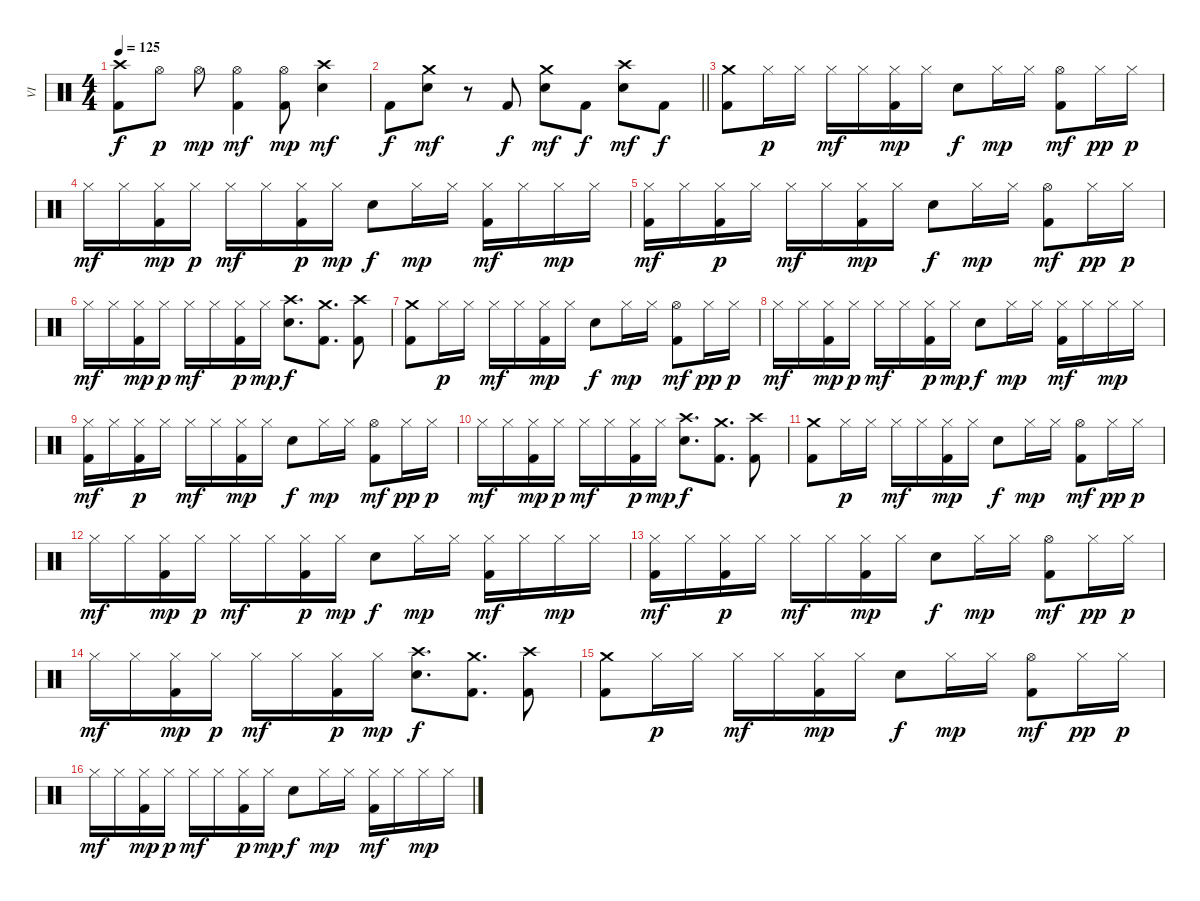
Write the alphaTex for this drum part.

\track ("VI" "VI") {instrument percussion}
\staff {score}
\articulation defaults
\ts (4 4)
\tempo 125
\clef neutral
\ks c
("Crash high (hit)" "Kick (hit) 2").8{dy f} "Hi-Hat (open)".8{dy p} "Hi-Hat (open)".8{dy mp} ("Hi-Hat (open)" "Kick (hit) 2").4{dy mf} ("Hi-Hat (open)" "Kick (hit) 2").8{dy mp} ("Crash high (hit)" "Electric Snare (hit)").4{dy mf} |
\barLineRight lightlight "Kick (hit) 2".8{dy f}
("Crash medium (hit)" "Electric Snare (hit)").8{dy mf} r.8 "Kick (hit) 2".8{dy f} ("Crash medium (hit)" "Electric Snare (hit)").8{dy mf} "Kick (hit) 2".8{dy f} ("Crash high (hit)" "Electric Snare (hit)").8{dy mf} "Kick (hit) 2".8{dy f} |
\section ("" "")
("Crash medium (hit)" "Kick (hit) 2").8 "Hi-Hat (closed)".16{dy p} "Hi-Hat (closed)".16 "Hi-Hat (closed)".16{dy mf} "Hi-Hat (closed)".16 ("Hi-Hat (closed)" "Kick (hit) 2").16{dy mp} "Hi-Hat (closed)".16 "Electric Snare (hit)".8{dy f} "Hi-Hat (closed)".16{dy mp} "Hi-Hat (closed)".16 ("Hi-Hat (open)" "Kick (hit) 2").8{dy mf} "Hi-Hat (closed)".16{dy pp} "Hi-Hat (closed)".16{dy p} |
"Hi-Hat (closed)".16{dy mf} "Hi-Hat (closed)".16 ("Hi-Hat (closed)" "Kick (hit) 2").16{dy mp} "Hi-Hat (closed)".16{dy p} "Hi-Hat (closed)".16{dy mf} "Hi-Hat (closed)".16 ("Hi-Hat (closed)" "Kick (hit) 2").16{dy p} "Hi-Hat (closed)".16{dy mp} "Electric Snare (hit)".8{dy f} "Hi-Hat (closed)".16{dy mp} "Hi-Hat (closed)".16 ("Hi-Hat (closed)" "Kick (hit) 2").16{dy mf} "Hi-Hat (closed)".16 "Hi-Hat (closed)".16{dy mp} "Hi-Hat (closed)".16 |
("Hi-Hat (closed)" "Kick (hit) 2").16{dy mf} "Hi-Hat (closed)".16 ("Hi-Hat (closed)" "Kick (hit) 2").16{dy p} "Hi-Hat (closed)".16 "Hi-Hat (closed)".16{dy mf} "Hi-Hat (closed)".16 ("Hi-Hat (closed)" "Kick (hit) 2").16{dy mp} "Hi-Hat (closed)".16 "Electric Snare (hit)".8{dy f} "Hi-Hat (closed)".16{dy mp} "Hi-Hat (closed)".16 ("Hi-Hat (open)" "Kick (hit) 2").8{dy mf} "Hi-Hat (closed)".16{dy pp} "Hi-Hat (closed)".16{dy p} |
"Hi-Hat (closed)".16{dy mf} "Hi-Hat (closed)".16 ("Hi-Hat (closed)" "Kick (hit) 2").16{dy mp} "Hi-Hat (closed)".16{dy p} "Hi-Hat (closed)".16{dy mf} "Hi-Hat (closed)".16 ("Hi-Hat (closed)" "Kick (hit) 2").16{dy p} "Hi-Hat (closed)".16{dy mp} ("Crash high (hit)" "Electric Snare (hit)").8{d dy f} ("Crash medium (hit)" "Kick (hit) 2").8{d} ("Crash high (hit)" "Kick (hit) 2").8 |
("Crash medium (hit)" "Kick (hit) 2").8 "Hi-Hat (closed)".16{dy p} "Hi-Hat (closed)".16 "Hi-Hat (closed)".16{dy mf} "Hi-Hat (closed)".16 ("Hi-Hat (closed)" "Kick (hit) 2").16{dy mp} "Hi-Hat (closed)".16 "Electric Snare (hit)".8{dy f} "Hi-Hat (closed)".16{dy mp} "Hi-Hat (closed)".16 ("Hi-Hat (open)" "Kick (hit) 2").8{dy mf} "Hi-Hat (closed)".16{dy pp} "Hi-Hat (closed)".16{dy p} |
"Hi-Hat (closed)".16{dy mf} "Hi-Hat (closed)".16 ("Hi-Hat (closed)" "Kick (hit) 2").16{dy mp} "Hi-Hat (closed)".16{dy p} "Hi-Hat (closed)".16{dy mf} "Hi-Hat (closed)".16 ("Hi-Hat (closed)" "Kick (hit) 2").16{dy p} "Hi-Hat (closed)".16{dy mp} "Electric Snare (hit)".8{dy f} "Hi-Hat (closed)".16{dy mp} "Hi-Hat (closed)".16 ("Hi-Hat (closed)" "Kick (hit) 2").16{dy mf} "Hi-Hat (closed)".16 "Hi-Hat (closed)".16{dy mp} "Hi-Hat (closed)".16 |
("Hi-Hat (closed)" "Kick (hit) 2").16{dy mf} "Hi-Hat (closed)".16 ("Hi-Hat (closed)" "Kick (hit) 2").16{dy p} "Hi-Hat (closed)".16 "Hi-Hat (closed)".16{dy mf} "Hi-Hat (closed)".16 ("Hi-Hat (closed)" "Kick (hit) 2").16{dy mp} "Hi-Hat (closed)".16 "Electric Snare (hit)".8{dy f} "Hi-Hat (closed)".16{dy mp} "Hi-Hat (closed)".16 ("Hi-Hat (open)" "Kick (hit) 2").8{dy mf} "Hi-Hat (closed)".16{dy pp} "Hi-Hat (closed)".16{dy p} |
"Hi-Hat (closed)".16{dy mf} "Hi-Hat (closed)".16 ("Hi-Hat (closed)" "Kick (hit) 2").16{dy mp} "Hi-Hat (closed)".16{dy p} "Hi-Hat (closed)".16{dy mf} "Hi-Hat (closed)".16 ("Hi-Hat (closed)" "Kick (hit) 2").16{dy p} "Hi-Hat (closed)".16{dy mp} ("Crash high (hit)" "Electric Snare (hit)").8{d dy f} ("Crash medium (hit)" "Kick (hit) 2").8{d} ("Crash high (hit)" "Kick (hit) 2").8 |
("Crash medium (hit)" "Kick (hit) 2").8 "Hi-Hat (closed)".16{dy p} "Hi-Hat (closed)".16 "Hi-Hat (closed)".16{dy mf} "Hi-Hat (closed)".16 ("Hi-Hat (closed)" "Kick (hit) 2").16{dy mp} "Hi-Hat (closed)".16 "Electric Snare (hit)".8{dy f} "Hi-Hat (closed)".16{dy mp} "Hi-Hat (closed)".16 ("Hi-Hat (open)" "Kick (hit) 2").8{dy mf} "Hi-Hat (closed)".16{dy pp} "Hi-Hat (closed)".16{dy p} |
"Hi-Hat (closed)".16{dy mf} "Hi-Hat (closed)".16 ("Hi-Hat (closed)" "Kick (hit) 2").16{dy mp} "Hi-Hat (closed)".16{dy p} "Hi-Hat (closed)".16{dy mf} "Hi-Hat (closed)".16 ("Hi-Hat (closed)" "Kick (hit) 2").16{dy p} "Hi-Hat (closed)".16{dy mp} "Electric Snare (hit)".8{dy f} "Hi-Hat (closed)".16{dy mp} "Hi-Hat (closed)".16 ("Hi-Hat (closed)" "Kick (hit) 2").16{dy mf} "Hi-Hat (closed)".16 "Hi-Hat (closed)".16{dy mp} "Hi-Hat (closed)".16 |
("Hi-Hat (closed)" "Kick (hit) 2").16{dy mf} "Hi-Hat (closed)".16 ("Hi-Hat (closed)" "Kick (hit) 2").16{dy p} "Hi-Hat (closed)".16 "Hi-Hat (closed)".16{dy mf} "Hi-Hat (closed)".16 ("Hi-Hat (closed)" "Kick (hit) 2").16{dy mp} "Hi-Hat (closed)".16 "Electric Snare (hit)".8{dy f} "Hi-Hat (closed)".16{dy mp} "Hi-Hat (closed)".16 ("Hi-Hat (open)" "Kick (hit) 2").8{dy mf} "Hi-Hat (closed)".16{dy pp} "Hi-Hat (closed)".16{dy p} |
"Hi-Hat (closed)".16{dy mf} "Hi-Hat (closed)".16 ("Hi-Hat (closed)" "Kick (hit) 2").16{dy mp} "Hi-Hat (closed)".16{dy p} "Hi-Hat (closed)".16{dy mf} "Hi-Hat (closed)".16 ("Hi-Hat (closed)" "Kick (hit) 2").16{dy p} "Hi-Hat (closed)".16{dy mp} ("Crash high (hit)" "Electric Snare (hit)").8{d dy f} ("Crash medium (hit)" "Kick (hit) 2").8{d} ("Crash high (hit)" "Kick (hit) 2").8 |
("Crash medium (hit)" "Kick (hit) 2").8 "Hi-Hat (closed)".16{dy p} "Hi-Hat (closed)".16 "Hi-Hat (closed)".16{dy mf} "Hi-Hat (closed)".16 ("Hi-Hat (closed)" "Kick (hit) 2").16{dy mp} "Hi-Hat (closed)".16 "Electric Snare (hit)".8{dy f} "Hi-Hat (closed)".16{dy mp} "Hi-Hat (closed)".16 ("Hi-Hat (open)" "Kick (hit) 2").8{dy mf} "Hi-Hat (closed)".16{dy pp} "Hi-Hat (closed)".16{dy p} |
"Hi-Hat (closed)".16{dy mf} "Hi-Hat (closed)".16 ("Hi-Hat (closed)" "Kick (hit) 2").16{dy mp} "Hi-Hat (closed)".16{dy p} "Hi-Hat (closed)".16{dy mf} "Hi-Hat (closed)".16 ("Hi-Hat (closed)" "Kick (hit) 2").16{dy p} "Hi-Hat (closed)".16{dy mp} "Electric Snare (hit)".8{dy f} "Hi-Hat (closed)".16{dy mp} "Hi-Hat (closed)".16 ("Hi-Hat (closed)" "Kick (hit) 2").16{dy mf} "Hi-Hat (closed)".16 "Hi-Hat (closed)".16{dy mp} "Hi-Hat (closed)".16
